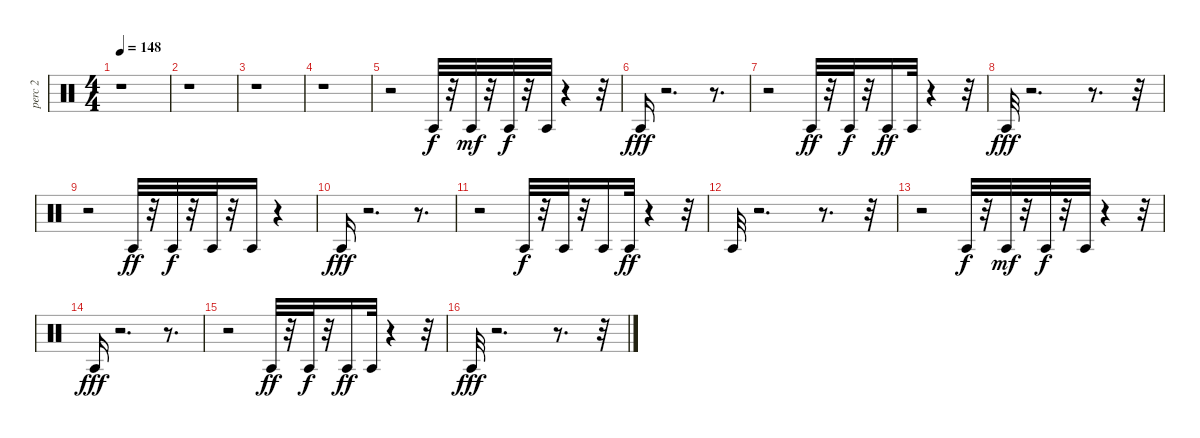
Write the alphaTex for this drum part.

\track ("perc 2              " "perc 2    ") {instrument percussion}
\staff {score}
\articulation defaults
\ts (4 4)
\tempo 148
\clef neutral
\ks c
r.1{dy ff} |
r.1 |
r.1 |
r.1 |
r.2 "Agogo tow (hit)".32{dy f} r.32 "Agogo tow (hit)".32{dy mf} r.32 "Agogo tow (hit)".32{dy f} r.32 "Agogo tow (hit)".32 r.4 r.32 |
"Agogo tow (hit)".16{dy fff} r.2{d} r.8{d} |
r.2 "Agogo tow (hit)".32{dy ff} r.32 "Agogo tow (hit)".32{dy f} r.32 "Agogo tow (hit)".16{dy ff} "Agogo tow (hit)".32 r.4 r.32 |
"Agogo tow (hit)".32{dy fff} r.2{d} r.8{d} r.32 |
r.2 "Agogo tow (hit)".32{dy ff} r.32 "Agogo tow (hit)".32{dy f} r.32 "Agogo tow (hit)".32 r.32 "Agogo tow (hit)".16 r.4 |
"Agogo tow (hit)".16{dy fff} r.2{d} r.8{d} |
r.2 "Agogo tow (hit)".32{dy f} r.32 "Agogo tow (hit)".32 r.32 "Agogo tow (hit)".16 "Agogo tow (hit)".32{dy ff} r.4 r.32 |
"Agogo tow (hit)".32 r.2{d} r.8{d} r.32 |
r.2 "Agogo tow (hit)".32{dy f} r.32 "Agogo tow (hit)".32{dy mf} r.32 "Agogo tow (hit)".32{dy f} r.32 "Agogo tow (hit)".32 r.4 r.32 |
"Agogo tow (hit)".16{dy fff} r.2{d} r.8{d} |
r.2 "Agogo tow (hit)".32{dy ff} r.32 "Agogo tow (hit)".32{dy f} r.32 "Agogo tow (hit)".16{dy ff} "Agogo tow (hit)".32 r.4 r.32 |
"Agogo tow (hit)".32{dy fff} r.2{d} r.8{d} r.32
